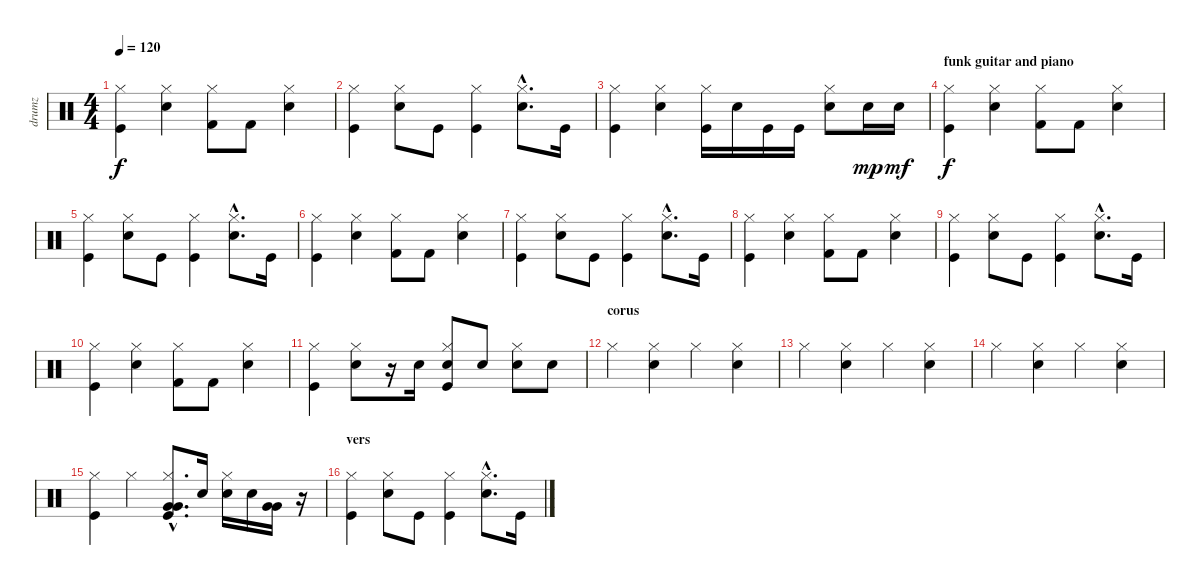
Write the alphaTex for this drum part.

\track ("drumz" "drumz") {instrument percussion}
\staff {score}
\articulation defaults
\ts (4 4)
\tempo 120
\clef neutral
\ks c
("Kick (hit)" "Hi-Hat (closed)").4{dy f} ("Snare (hit) 2" "Hi-Hat (closed)").4 ("Kick (hit) 2" "Hi-Hat (closed)").8 "Kick (hit) 2".8 ("Snare (hit) 2" "Hi-Hat (closed)").4 |
("Kick (hit)" "Hi-Hat (closed)").4 ("Snare (hit) 2" "Hi-Hat (closed)").8 "Kick (hit)".8 ("Kick (hit)" "Hi-Hat (closed)").4 ("Snare (hit) 2"{hac} "Hi-Hat (closed)"{hac}).8{d} "Kick (hit)".16 |
("Kick (hit)" "Hi-Hat (closed)").4 ("Snare (hit) 2" "Hi-Hat (closed)").4 ("Kick (hit)" "Hi-Hat (closed)").16 "Snare (hit) 2".16 "Kick (hit)".16 "Kick (hit)".16 ("Snare (hit) 2" "Hi-Hat (closed)").8 "Snare (hit) 2".16{dy mp} "Snare (hit) 2".16{dy mf} |
\section ("" "funk guitar and piano")
("Kick (hit)" "Hi-Hat (closed)").4{dy f} ("Snare (hit) 2" "Hi-Hat (closed)").4 ("Kick (hit) 2" "Hi-Hat (closed)").8 "Kick (hit) 2".8 ("Snare (hit) 2" "Hi-Hat (closed)").4 |
("Kick (hit)" "Hi-Hat (closed)").4 ("Snare (hit) 2" "Hi-Hat (closed)").8 "Kick (hit)".8 ("Kick (hit)" "Hi-Hat (closed)").4 ("Snare (hit) 2"{hac} "Hi-Hat (closed)"{hac}).8{d} "Kick (hit)".16 |
("Kick (hit)" "Hi-Hat (closed)").4 ("Snare (hit) 2" "Hi-Hat (closed)").4 ("Kick (hit) 2" "Hi-Hat (closed)").8 "Kick (hit) 2".8 ("Snare (hit) 2" "Hi-Hat (closed)").4 |
("Kick (hit)" "Hi-Hat (closed)").4 ("Snare (hit) 2" "Hi-Hat (closed)").8 "Kick (hit)".8 ("Kick (hit)" "Hi-Hat (closed)").4 ("Snare (hit) 2"{hac} "Hi-Hat (closed)"{hac}).8{d} "Kick (hit)".16 |
("Kick (hit)" "Hi-Hat (closed)").4 ("Snare (hit) 2" "Hi-Hat (closed)").4 ("Kick (hit) 2" "Hi-Hat (closed)").8 "Kick (hit) 2".8 ("Snare (hit) 2" "Hi-Hat (closed)").4 |
("Kick (hit)" "Hi-Hat (closed)").4 ("Snare (hit) 2" "Hi-Hat (closed)").8 "Kick (hit)".8 ("Kick (hit)" "Hi-Hat (closed)").4 ("Snare (hit) 2"{hac} "Hi-Hat (closed)"{hac}).8{d} "Kick (hit)".16 |
("Kick (hit)" "Hi-Hat (closed)").4 ("Snare (hit) 2" "Hi-Hat (closed)").4 ("Kick (hit) 2" "Hi-Hat (closed)").8 "Kick (hit) 2".8 ("Snare (hit) 2" "Hi-Hat (closed)").4 |
("Kick (hit)" "Hi-Hat (closed)").4 ("Snare (hit) 2" "Hi-Hat (closed)").8 r.16 "Snare (hit) 2".16 ("Snare (hit) 2" "Kick (hit)" "Hi-Hat (closed)").8 "Snare (hit) 2".8 ("Snare (hit) 2" "Hi-Hat (closed)").8 "Snare (hit) 2".8 |
\section ("" "corus")
"Hi-Hat (closed)".4 ("Snare (hit) 2" "Hi-Hat (closed)").4 "Hi-Hat (closed)".4 ("Snare (hit) 2" "Hi-Hat (closed)").4 |
"Hi-Hat (closed)".4 ("Snare (hit) 2" "Hi-Hat (closed)").4 "Hi-Hat (closed)".4 ("Snare (hit) 2" "Hi-Hat (closed)").4 |
"Hi-Hat (closed)".4 ("Snare (hit) 2" "Hi-Hat (closed)").4 "Hi-Hat (closed)".4 ("Snare (hit) 2" "Hi-Hat (closed)").4 |
("Kick (hit)" "Hi-Hat (closed)").4 "Hi-Hat (closed)".4 ("Very Low Tom (hit)"{hac} "Very Low Tom (hit)"{hac} "Kick (hit)"{hac} "Hi-Hat (closed)"{hac}).8{d} "Snare (hit) 2".16 ("Snare (hit) 2" "Hi-Hat (closed)").16 "Snare (hit) 2".16 ("Very Low Tom (hit)" "Very Low Tom (hit)").16 r.16 |
\section ("" "vers")
("Kick (hit)" "Hi-Hat (closed)").4 ("Snare (hit) 2" "Hi-Hat (closed)").8 "Kick (hit)".8 ("Kick (hit)" "Hi-Hat (closed)").4 ("Snare (hit) 2"{hac} "Hi-Hat (closed)"{hac}).8{d} "Kick (hit)".16
